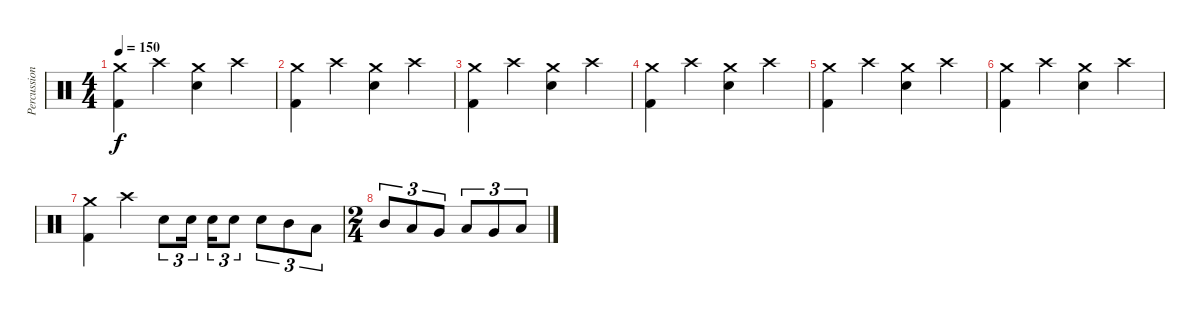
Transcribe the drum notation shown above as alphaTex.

\track ("Percussion" "Percussion") {instrument percussion}
\staff {score}
\articulation defaults
\ts (4 4)
\tempo 150
\clef neutral
\ks c
("Crash medium (hit)" "Kick (hit) 2").4{dy f} "Crash high (hit)".4 ("Crash medium (hit)" "Electric Snare (hit)").4 "Crash high (hit)".4 |
("Crash medium (hit)" "Kick (hit) 2").4 "Crash high (hit)".4 ("Crash medium (hit)" "Electric Snare (hit)").4 "Crash high (hit)".4 |
("Crash medium (hit)" "Kick (hit) 2").4 "Crash high (hit)".4 ("Crash medium (hit)" "Electric Snare (hit)").4 "Crash high (hit)".4 |
("Crash medium (hit)" "Kick (hit) 2").4 "Crash high (hit)".4 ("Crash medium (hit)" "Electric Snare (hit)").4 "Crash high (hit)".4 |
("Crash medium (hit)" "Kick (hit) 2").4 "Crash high (hit)".4 ("Crash medium (hit)" "Electric Snare (hit)").4 "Crash high (hit)".4 |
("Crash medium (hit)" "Kick (hit) 2").4 "Crash high (hit)".4 ("Crash medium (hit)" "Electric Snare (hit)").4 "Crash high (hit)".4 |
("Crash medium (hit)" "Kick (hit) 2").4 "Crash high (hit)".4 "Electric Snare (hit)".8{tu (3 2)} "Electric Snare (hit)".16{tu (3 2)} "Electric Snare (hit)".16{tu (3 2)} "Electric Snare (hit)".8{tu (3 2)} "Electric Snare (hit)".8{tu (3 2)} "Mid Tom (hit)".8{tu (3 2)} "Low Tom (hit)".8{tu (3 2)} |
\ts (2 4)
"Mid Tom (hit)".8{tu (3 2)} "Low Tom (hit)".8{tu (3 2)} "Very Low Tom (hit)".8{tu (3 2)} "Low Tom (hit)".8{tu (3 2)} "Very Low Tom (hit)".8{tu (3 2)} "Low Floor Tom (hit)".8{tu (3 2)}
